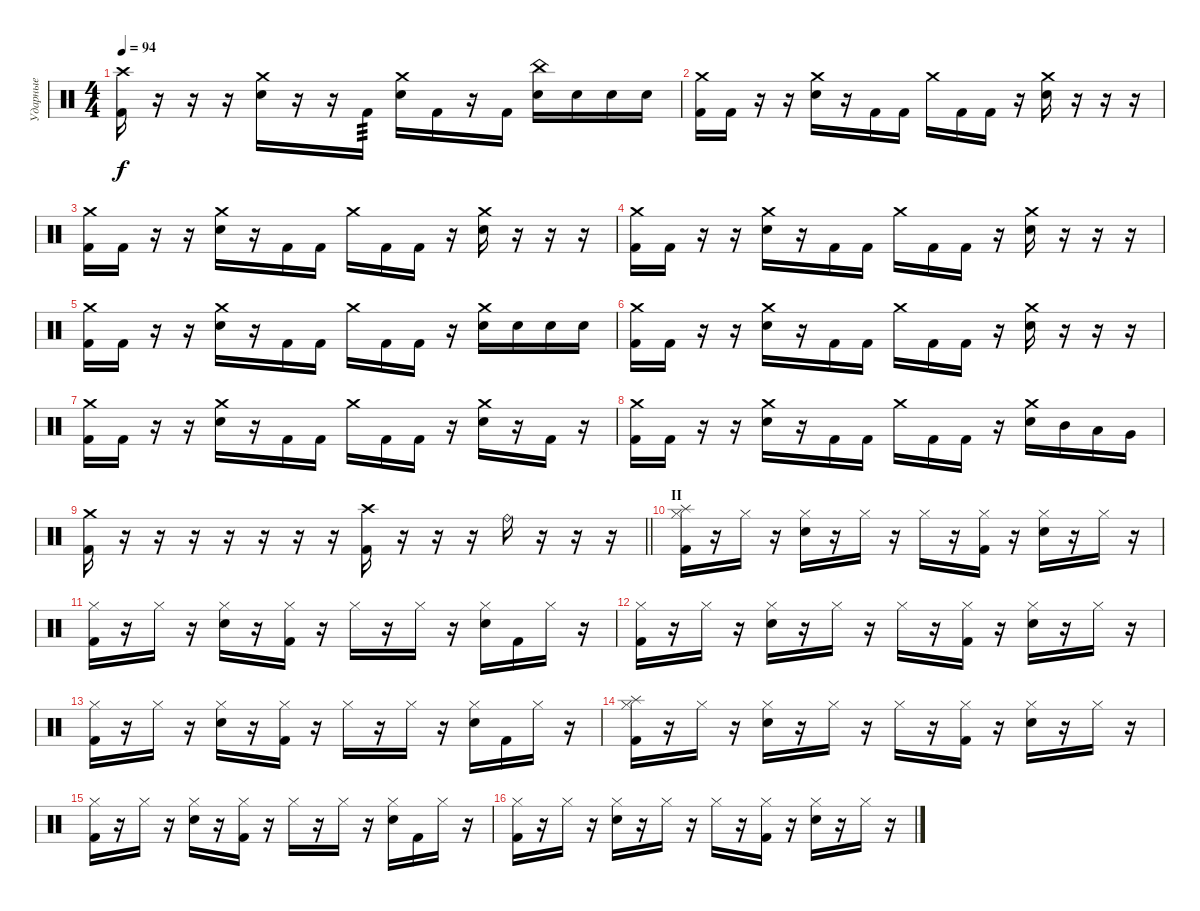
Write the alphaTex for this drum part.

\track ("Ударные" "Ударные") {instrument percussion}
\staff {score}
\articulation defaults
\ts (4 4)
\tempo 94
\clef neutral
\ks c
("Crash high (hit)" "Kick (hit) 2").16{dy f} r.16 r.16 r.16 ("Crash medium (hit)" "Electric Snare (hit)").16 r.16 r.16 "Kick (hit) 2".16{tp 3} ("Crash medium (hit)" "Electric Snare (hit)").16 "Kick (hit) 2".16 r.16 "Kick (hit) 2".16 ("China (hit)" "Electric Snare (hit)").16 "Electric Snare (hit)".16 "Electric Snare (hit)".16 "Electric Snare (hit)".16 |
("Crash medium (hit)" "Kick (hit) 2").16 "Kick (hit) 2".16 r.16 r.16 ("Crash medium (hit)" "Electric Snare (hit)").16 r.16 "Kick (hit) 2".16 "Kick (hit) 2".16 "Crash medium (hit)".16 "Kick (hit) 2".16 "Kick (hit) 2".16 r.16 ("Crash medium (hit)" "Electric Snare (hit)").16 r.16 r.16 r.16 |
("Crash medium (hit)" "Kick (hit) 2").16 "Kick (hit) 2".16 r.16 r.16 ("Crash medium (hit)" "Electric Snare (hit)").16 r.16 "Kick (hit) 2".16 "Kick (hit) 2".16 "Crash medium (hit)".16 "Kick (hit) 2".16 "Kick (hit) 2".16 r.16 ("Crash medium (hit)" "Electric Snare (hit)").16 r.16 r.16 r.16 |
("Crash medium (hit)" "Kick (hit) 2").16 "Kick (hit) 2".16 r.16 r.16 ("Crash medium (hit)" "Electric Snare (hit)").16 r.16 "Kick (hit) 2".16 "Kick (hit) 2".16 "Crash medium (hit)".16 "Kick (hit) 2".16 "Kick (hit) 2".16 r.16 ("Crash medium (hit)" "Electric Snare (hit)").16 r.16 r.16 r.16 |
("Crash medium (hit)" "Kick (hit) 2").16 "Kick (hit) 2".16 r.16 r.16 ("Crash medium (hit)" "Electric Snare (hit)").16 r.16 "Kick (hit) 2".16 "Kick (hit) 2".16 "Crash medium (hit)".16 "Kick (hit) 2".16 "Kick (hit) 2".16 r.16 ("Crash medium (hit)" "Electric Snare (hit)").16 "Electric Snare (hit)".16 "Electric Snare (hit)".16 "Electric Snare (hit)".16 |
("Crash medium (hit)" "Kick (hit) 2").16 "Kick (hit) 2".16 r.16 r.16 ("Crash medium (hit)" "Electric Snare (hit)").16 r.16 "Kick (hit) 2".16 "Kick (hit) 2".16 "Crash medium (hit)".16 "Kick (hit) 2".16 "Kick (hit) 2".16 r.16 ("Crash medium (hit)" "Electric Snare (hit)").16 r.16 r.16 r.16 |
("Crash medium (hit)" "Kick (hit) 2").16 "Kick (hit) 2".16 r.16 r.16 ("Crash medium (hit)" "Electric Snare (hit)").16 r.16 "Kick (hit) 2".16 "Kick (hit) 2".16 "Crash medium (hit)".16 "Kick (hit) 2".16 "Kick (hit) 2".16 r.16 ("Crash medium (hit)" "Electric Snare (hit)").16 r.16 "Kick (hit) 2".16 r.16 |
("Crash medium (hit)" "Kick (hit) 2").16 "Kick (hit) 2".16 r.16 r.16 ("Crash medium (hit)" "Electric Snare (hit)").16 r.16 "Kick (hit) 2".16 "Kick (hit) 2".16 "Crash medium (hit)".16 "Kick (hit) 2".16 "Kick (hit) 2".16 r.16 ("Crash medium (hit)" "Electric Snare (hit)").16 "Mid Tom (hit)".16 "Low Tom (hit)".16 "Very Low Tom (hit)".16 |
\barLineRight lightlight
("Crash medium (hit)" "Kick (hit) 2").16 r.16 r.16 r.16 r.16 r.16 r.16 r.16 ("Crash high (hit)" "Kick (hit) 2").16 r.16 r.16 r.16 "Ride (bell)".16 r.16 r.16 r.16 |
\section ("" "II")
("Hi-Hat (closed)" "Splash (hit)" "Kick (hit) 2").16 r.16 "Hi-Hat (closed)".16 r.16 ("Hi-Hat (closed)" "Snare (hit) 2").16 r.16 "Hi-Hat (closed)".16 r.16 "Hi-Hat (closed)".16 r.16 ("Hi-Hat (closed)" "Kick (hit) 2").16 r.16 ("Hi-Hat (closed)" "Snare (hit) 2").16 r.16 "Hi-Hat (closed)".16 r.16 |
("Hi-Hat (closed)" "Kick (hit) 2").16 r.16 "Hi-Hat (closed)".16 r.16 ("Hi-Hat (closed)" "Snare (hit) 2").16 r.16 ("Hi-Hat (closed)" "Kick (hit) 2").16 r.16 "Hi-Hat (closed)".16 r.16 "Hi-Hat (closed)".16 r.16 ("Hi-Hat (closed)" "Snare (hit) 2").16 "Kick (hit) 2".16 "Hi-Hat (closed)".16 r.16 |
("Hi-Hat (closed)" "Kick (hit) 2").16 r.16 "Hi-Hat (closed)".16 r.16 ("Hi-Hat (closed)" "Snare (hit) 2").16 r.16 "Hi-Hat (closed)".16 r.16 "Hi-Hat (closed)".16 r.16 ("Hi-Hat (closed)" "Kick (hit) 2").16 r.16 ("Hi-Hat (closed)" "Snare (hit) 2").16 r.16 "Hi-Hat (closed)".16 r.16 |
("Hi-Hat (closed)" "Kick (hit) 2").16 r.16 "Hi-Hat (closed)".16 r.16 ("Hi-Hat (closed)" "Snare (hit) 2").16 r.16 ("Hi-Hat (closed)" "Kick (hit) 2").16 r.16 "Hi-Hat (closed)".16 r.16 "Hi-Hat (closed)".16 r.16 ("Hi-Hat (closed)" "Snare (hit) 2").16 "Kick (hit) 2".16 "Hi-Hat (closed)".16 r.16 |
("Hi-Hat (closed)" "Splash (hit)" "Kick (hit) 2").16 r.16 "Hi-Hat (closed)".16 r.16 ("Hi-Hat (closed)" "Snare (hit) 2").16 r.16 "Hi-Hat (closed)".16 r.16 "Hi-Hat (closed)".16 r.16 ("Hi-Hat (closed)" "Kick (hit) 2").16 r.16 ("Hi-Hat (closed)" "Snare (hit) 2").16 r.16 "Hi-Hat (closed)".16 r.16 |
("Hi-Hat (closed)" "Kick (hit) 2").16 r.16 "Hi-Hat (closed)".16 r.16 ("Hi-Hat (closed)" "Snare (hit) 2").16 r.16 ("Hi-Hat (closed)" "Kick (hit) 2").16 r.16 "Hi-Hat (closed)".16 r.16 "Hi-Hat (closed)".16 r.16 ("Hi-Hat (closed)" "Snare (hit) 2").16 "Kick (hit) 2".16 "Hi-Hat (closed)".16 r.16 |
("Hi-Hat (closed)" "Kick (hit) 2").16 r.16 "Hi-Hat (closed)".16 r.16 ("Hi-Hat (closed)" "Snare (hit) 2").16 r.16 "Hi-Hat (closed)".16 r.16 "Hi-Hat (closed)".16 r.16 ("Hi-Hat (closed)" "Kick (hit) 2").16 r.16 ("Hi-Hat (closed)" "Snare (hit) 2").16 r.16 "Hi-Hat (closed)".16 r.16
